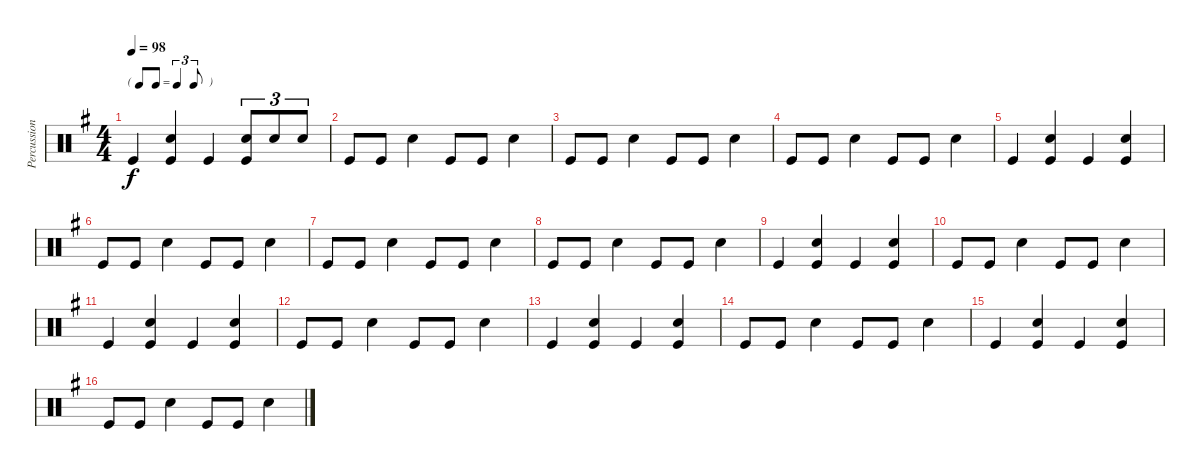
\track ("Percussion" "Percussion") {instrument percussion}
\staff {score}
\articulation defaults
\ts (4 4)
\tf triplet8th
\tempo 98
\clef neutral
\ks g "Kick (hit)".4{dy f}
("Snare (hit) 2" "Kick (hit)").4 "Kick (hit)".4 ("Snare (hit) 2" "Kick (hit)").8{tu (3 2)} "Snare (hit) 2".8{tu (3 2)} "Snare (hit) 2".8{tu (3 2)} |
"Kick (hit)".8 "Kick (hit)".8 "Snare (hit) 2".4 "Kick (hit)".8 "Kick (hit)".8 "Snare (hit) 2".4 |
"Kick (hit)".8 "Kick (hit)".8 "Snare (hit) 2".4 "Kick (hit)".8 "Kick (hit)".8 "Snare (hit) 2".4 |
"Kick (hit)".8 "Kick (hit)".8 "Snare (hit) 2".4 "Kick (hit)".8 "Kick (hit)".8 "Snare (hit) 2".4 |
"Kick (hit)".4 ("Snare (hit) 2" "Kick (hit)").4 "Kick (hit)".4 ("Snare (hit) 2" "Kick (hit)").4 |
"Kick (hit)".8 "Kick (hit)".8 "Snare (hit) 2".4 "Kick (hit)".8 "Kick (hit)".8 "Snare (hit) 2".4 |
"Kick (hit)".8 "Kick (hit)".8 "Snare (hit) 2".4 "Kick (hit)".8 "Kick (hit)".8 "Snare (hit) 2".4 |
"Kick (hit)".8 "Kick (hit)".8 "Snare (hit) 2".4 "Kick (hit)".8 "Kick (hit)".8 "Snare (hit) 2".4 |
"Kick (hit)".4 ("Snare (hit) 2" "Kick (hit)").4 "Kick (hit)".4 ("Snare (hit) 2" "Kick (hit)").4 |
"Kick (hit)".8 "Kick (hit)".8 "Snare (hit) 2".4 "Kick (hit)".8 "Kick (hit)".8 "Snare (hit) 2".4 |
"Kick (hit)".4 ("Snare (hit) 2" "Kick (hit)").4 "Kick (hit)".4 ("Snare (hit) 2" "Kick (hit)").4 |
"Kick (hit)".8 "Kick (hit)".8 "Snare (hit) 2".4 "Kick (hit)".8 "Kick (hit)".8 "Snare (hit) 2".4 |
"Kick (hit)".4 ("Snare (hit) 2" "Kick (hit)").4 "Kick (hit)".4 ("Snare (hit) 2" "Kick (hit)").4 |
"Kick (hit)".8 "Kick (hit)".8 "Snare (hit) 2".4 "Kick (hit)".8 "Kick (hit)".8 "Snare (hit) 2".4 |
"Kick (hit)".4 ("Snare (hit) 2" "Kick (hit)").4 "Kick (hit)".4 ("Snare (hit) 2" "Kick (hit)").4 |
"Kick (hit)".8 "Kick (hit)".8 "Snare (hit) 2".4 "Kick (hit)".8 "Kick (hit)".8 "Snare (hit) 2".4
